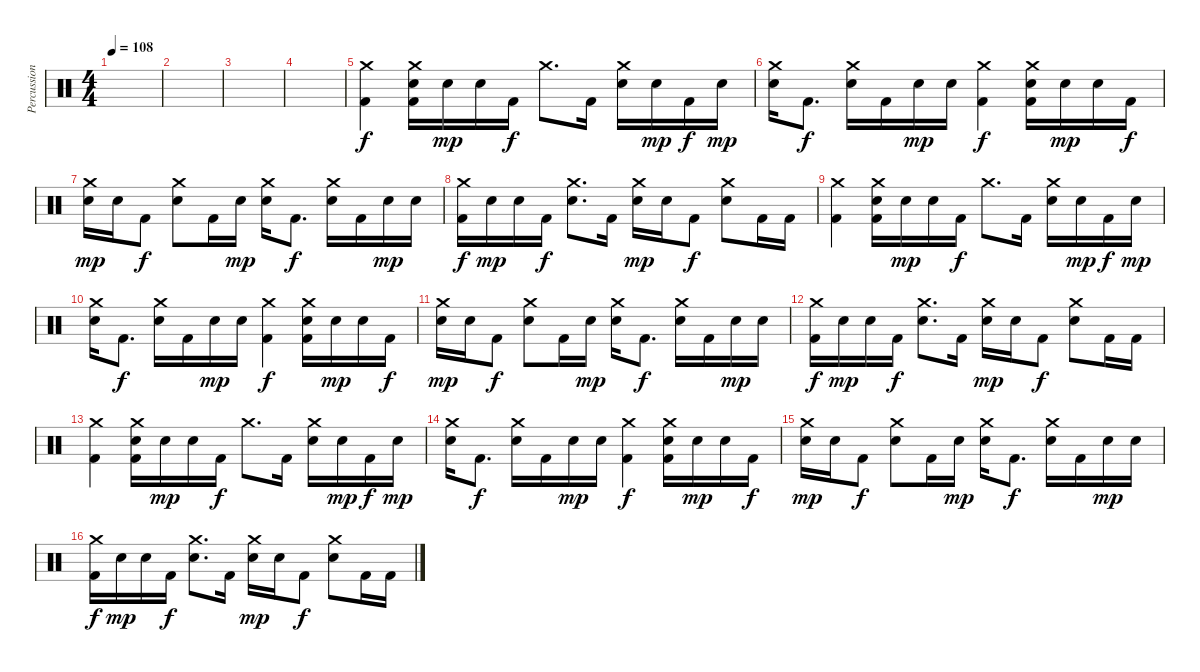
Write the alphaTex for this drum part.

\track ("Percussion" "Percussion") {instrument percussion}
\staff {score}
\articulation defaults
\ts (4 4)
\tempo 108
\clef neutral
\ks c
|
|
|
|
("Crash medium (hit)" "Kick (hit) 2").4 ("Crash medium (hit)" "Electric Snare (hit)" "Kick (hit) 2").16 "Electric Snare (hit)".16{dy mp} "Electric Snare (hit)".16 "Kick (hit) 2".16{dy f} "Crash medium (hit)".8{d} "Kick (hit) 2".16 ("Crash medium (hit)" "Electric Snare (hit)").16 "Electric Snare (hit)".16{dy mp} "Kick (hit) 2".16{dy f} "Electric Snare (hit)".16{dy mp} |
("Crash medium (hit)" "Electric Snare (hit)").16 "Kick (hit) 2".8{d dy f} ("Crash medium (hit)" "Electric Snare (hit)").16 "Kick (hit) 2".16 "Electric Snare (hit)".16{dy mp} "Electric Snare (hit)".16 ("Crash medium (hit)" "Kick (hit) 2").4{dy f} ("Crash medium (hit)" "Electric Snare (hit)" "Kick (hit) 2").16 "Electric Snare (hit)".16{dy mp} "Electric Snare (hit)".16 "Kick (hit) 2".16{dy f} |
("Crash medium (hit)" "Electric Snare (hit)").16{dy mp} "Electric Snare (hit)".16 "Kick (hit) 2".8{dy f} ("Crash medium (hit)" "Electric Snare (hit)").8 "Kick (hit) 2".16 "Electric Snare (hit)".16{dy mp} ("Crash medium (hit)" "Electric Snare (hit)").16 "Kick (hit) 2".8{d dy f} ("Crash medium (hit)" "Electric Snare (hit)").16 "Kick (hit) 2".16 "Electric Snare (hit)".16{dy mp} "Electric Snare (hit)".16 |
("Crash medium (hit)" "Kick (hit) 2").16{dy f} "Electric Snare (hit)".16{dy mp} "Electric Snare (hit)".16 "Kick (hit) 2".16{dy f} ("Crash medium (hit)" "Electric Snare (hit)").8{d} "Kick (hit) 2".16 ("Crash medium (hit)" "Electric Snare (hit)").16{dy mp} "Electric Snare (hit)".16 "Kick (hit) 2".8{dy f} ("Crash medium (hit)" "Electric Snare (hit)").8 "Kick (hit) 2".16 "Kick (hit) 2".16 |
("Crash medium (hit)" "Kick (hit) 2").4 ("Crash medium (hit)" "Electric Snare (hit)" "Kick (hit) 2").16 "Electric Snare (hit)".16{dy mp} "Electric Snare (hit)".16 "Kick (hit) 2".16{dy f} "Crash medium (hit)".8{d} "Kick (hit) 2".16 ("Crash medium (hit)" "Electric Snare (hit)").16 "Electric Snare (hit)".16{dy mp} "Kick (hit) 2".16{dy f} "Electric Snare (hit)".16{dy mp} |
("Crash medium (hit)" "Electric Snare (hit)").16 "Kick (hit) 2".8{d dy f} ("Crash medium (hit)" "Electric Snare (hit)").16 "Kick (hit) 2".16 "Electric Snare (hit)".16{dy mp} "Electric Snare (hit)".16 ("Crash medium (hit)" "Kick (hit) 2").4{dy f} ("Crash medium (hit)" "Electric Snare (hit)" "Kick (hit) 2").16 "Electric Snare (hit)".16{dy mp} "Electric Snare (hit)".16 "Kick (hit) 2".16{dy f} |
("Crash medium (hit)" "Electric Snare (hit)").16{dy mp} "Electric Snare (hit)".16 "Kick (hit) 2".8{dy f} ("Crash medium (hit)" "Electric Snare (hit)").8 "Kick (hit) 2".16 "Electric Snare (hit)".16{dy mp} ("Crash medium (hit)" "Electric Snare (hit)").16 "Kick (hit) 2".8{d dy f} ("Crash medium (hit)" "Electric Snare (hit)").16 "Kick (hit) 2".16 "Electric Snare (hit)".16{dy mp} "Electric Snare (hit)".16 |
("Crash medium (hit)" "Kick (hit) 2").16{dy f} "Electric Snare (hit)".16{dy mp} "Electric Snare (hit)".16 "Kick (hit) 2".16{dy f} ("Crash medium (hit)" "Electric Snare (hit)").8{d} "Kick (hit) 2".16 ("Crash medium (hit)" "Electric Snare (hit)").16{dy mp} "Electric Snare (hit)".16 "Kick (hit) 2".8{dy f} ("Crash medium (hit)" "Electric Snare (hit)").8 "Kick (hit) 2".16 "Kick (hit) 2".16 |
("Crash medium (hit)" "Kick (hit) 2").4 ("Crash medium (hit)" "Electric Snare (hit)" "Kick (hit) 2").16 "Electric Snare (hit)".16{dy mp} "Electric Snare (hit)".16 "Kick (hit) 2".16{dy f} "Crash medium (hit)".8{d} "Kick (hit) 2".16 ("Crash medium (hit)" "Electric Snare (hit)").16 "Electric Snare (hit)".16{dy mp} "Kick (hit) 2".16{dy f} "Electric Snare (hit)".16{dy mp} |
("Crash medium (hit)" "Electric Snare (hit)").16 "Kick (hit) 2".8{d dy f} ("Crash medium (hit)" "Electric Snare (hit)").16 "Kick (hit) 2".16 "Electric Snare (hit)".16{dy mp} "Electric Snare (hit)".16 ("Crash medium (hit)" "Kick (hit) 2").4{dy f} ("Crash medium (hit)" "Electric Snare (hit)" "Kick (hit) 2").16 "Electric Snare (hit)".16{dy mp} "Electric Snare (hit)".16 "Kick (hit) 2".16{dy f} |
("Crash medium (hit)" "Electric Snare (hit)").16{dy mp} "Electric Snare (hit)".16 "Kick (hit) 2".8{dy f} ("Crash medium (hit)" "Electric Snare (hit)").8 "Kick (hit) 2".16 "Electric Snare (hit)".16{dy mp} ("Crash medium (hit)" "Electric Snare (hit)").16 "Kick (hit) 2".8{d dy f} ("Crash medium (hit)" "Electric Snare (hit)").16 "Kick (hit) 2".16 "Electric Snare (hit)".16{dy mp} "Electric Snare (hit)".16 |
("Crash medium (hit)" "Kick (hit) 2").16{dy f} "Electric Snare (hit)".16{dy mp} "Electric Snare (hit)".16 "Kick (hit) 2".16{dy f} ("Crash medium (hit)" "Electric Snare (hit)").8{d} "Kick (hit) 2".16 ("Crash medium (hit)" "Electric Snare (hit)").16{dy mp} "Electric Snare (hit)".16 "Kick (hit) 2".8{dy f} ("Crash medium (hit)" "Electric Snare (hit)").8 "Kick (hit) 2".16 "Kick (hit) 2".16
